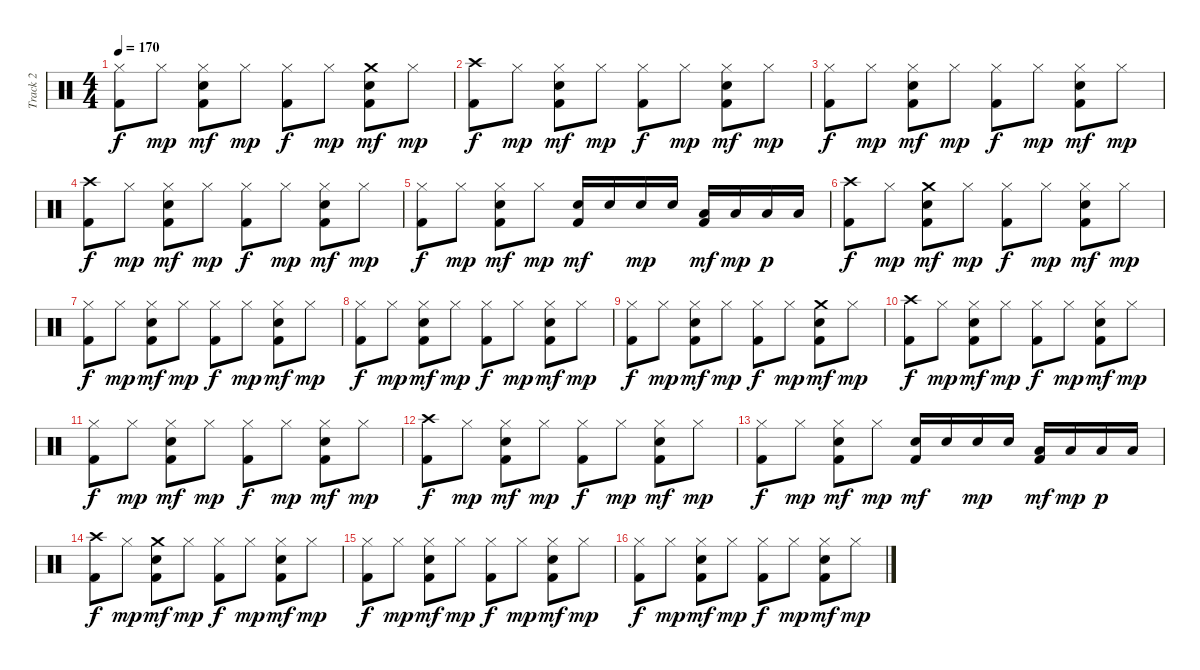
\track ("Track 2" "Track 2") {instrument percussion}
\staff {score}
\articulation defaults
\ts (4 4)
\tempo 170
\clef neutral
\ks c
("Hi-Hat (closed)" "Kick (hit) 2").8{dy f} "Hi-Hat (closed)".8{dy mp} ("Hi-Hat (closed)" "Electric Snare (hit)" "Kick (hit) 2").8{dy mf} "Hi-Hat (closed)".8{dy mp} ("Hi-Hat (closed)" "Kick (hit) 2").8{dy f} "Hi-Hat (closed)".8{dy mp} ("Crash medium (hit)" "Electric Snare (hit)" "Kick (hit) 2").8{dy mf} "Hi-Hat (closed)".8{dy mp} |
("Crash high (hit)" "Kick (hit) 2").8{dy f} "Hi-Hat (closed)".8{dy mp} ("Hi-Hat (closed)" "Electric Snare (hit)" "Kick (hit) 2").8{dy mf} "Hi-Hat (closed)".8{dy mp} ("Hi-Hat (closed)" "Kick (hit) 2").8{dy f} "Hi-Hat (closed)".8{dy mp} ("Hi-Hat (closed)" "Electric Snare (hit)" "Kick (hit) 2").8{dy mf} "Hi-Hat (closed)".8{dy mp} |
("Hi-Hat (closed)" "Kick (hit) 2").8{dy f} "Hi-Hat (closed)".8{dy mp} ("Hi-Hat (closed)" "Electric Snare (hit)" "Kick (hit) 2").8{dy mf} "Hi-Hat (closed)".8{dy mp} ("Hi-Hat (closed)" "Kick (hit) 2").8{dy f} "Hi-Hat (closed)".8{dy mp} ("Hi-Hat (closed)" "Electric Snare (hit)" "Kick (hit) 2").8{dy mf} "Hi-Hat (closed)".8{dy mp} |
("Crash high (hit)" "Kick (hit) 2").8{dy f} "Hi-Hat (closed)".8{dy mp} ("Hi-Hat (closed)" "Electric Snare (hit)" "Kick (hit) 2").8{dy mf} "Hi-Hat (closed)".8{dy mp} ("Hi-Hat (closed)" "Kick (hit) 2").8{dy f} "Hi-Hat (closed)".8{dy mp} ("Hi-Hat (closed)" "Electric Snare (hit)" "Kick (hit) 2").8{dy mf} "Hi-Hat (closed)".8{dy mp} |
("Hi-Hat (closed)" "Kick (hit) 2").8{dy f} "Hi-Hat (closed)".8{dy mp} ("Hi-Hat (closed)" "Electric Snare (hit)" "Kick (hit) 2").8{dy mf} "Hi-Hat (closed)".8{dy mp} ("Electric Snare (hit)" "Kick (hit) 2").16{dy mf} "Electric Snare (hit)".16 "Electric Snare (hit)".16{dy mp} "Electric Snare (hit)".16 ("Low Tom (hit)" "Kick (hit) 2").16{dy mf} "Low Tom (hit)".16{dy mp} "Low Tom (hit)".16{dy p} "Low Tom (hit)".16 |
("Crash high (hit)" "Kick (hit) 2").8{dy f} "Hi-Hat (closed)".8{dy mp} ("Crash medium (hit)" "Electric Snare (hit)" "Kick (hit) 2").8{dy mf} "Hi-Hat (closed)".8{dy mp} ("Hi-Hat (closed)" "Kick (hit) 2").8{dy f} "Hi-Hat (closed)".8{dy mp} ("Hi-Hat (closed)" "Electric Snare (hit)" "Kick (hit) 2").8{dy mf} "Hi-Hat (closed)".8{dy mp} |
("Hi-Hat (closed)" "Kick (hit) 2").8{dy f} "Hi-Hat (closed)".8{dy mp} ("Hi-Hat (closed)" "Electric Snare (hit)" "Kick (hit) 2").8{dy mf} "Hi-Hat (closed)".8{dy mp} ("Hi-Hat (closed)" "Kick (hit) 2").8{dy f} "Hi-Hat (closed)".8{dy mp} ("Hi-Hat (closed)" "Electric Snare (hit)" "Kick (hit) 2").8{dy mf} "Hi-Hat (closed)".8{dy mp} |
("Hi-Hat (closed)" "Kick (hit) 2").8{dy f} "Hi-Hat (closed)".8{dy mp} ("Hi-Hat (closed)" "Electric Snare (hit)" "Kick (hit) 2").8{dy mf} "Hi-Hat (closed)".8{dy mp} ("Hi-Hat (closed)" "Kick (hit) 2").8{dy f} "Hi-Hat (closed)".8{dy mp} ("Hi-Hat (closed)" "Electric Snare (hit)" "Kick (hit) 2").8{dy mf} "Hi-Hat (closed)".8{dy mp} |
("Hi-Hat (closed)" "Kick (hit) 2").8{dy f} "Hi-Hat (closed)".8{dy mp} ("Hi-Hat (closed)" "Electric Snare (hit)" "Kick (hit) 2").8{dy mf} "Hi-Hat (closed)".8{dy mp} ("Hi-Hat (closed)" "Kick (hit) 2").8{dy f} "Hi-Hat (closed)".8{dy mp} ("Crash medium (hit)" "Electric Snare (hit)" "Kick (hit) 2").8{dy mf} "Hi-Hat (closed)".8{dy mp} |
("Crash high (hit)" "Kick (hit) 2").8{dy f} "Hi-Hat (closed)".8{dy mp} ("Hi-Hat (closed)" "Electric Snare (hit)" "Kick (hit) 2").8{dy mf} "Hi-Hat (closed)".8{dy mp} ("Hi-Hat (closed)" "Kick (hit) 2").8{dy f} "Hi-Hat (closed)".8{dy mp} ("Hi-Hat (closed)" "Electric Snare (hit)" "Kick (hit) 2").8{dy mf} "Hi-Hat (closed)".8{dy mp} |
("Hi-Hat (closed)" "Kick (hit) 2").8{dy f} "Hi-Hat (closed)".8{dy mp} ("Hi-Hat (closed)" "Electric Snare (hit)" "Kick (hit) 2").8{dy mf} "Hi-Hat (closed)".8{dy mp} ("Hi-Hat (closed)" "Kick (hit) 2").8{dy f} "Hi-Hat (closed)".8{dy mp} ("Hi-Hat (closed)" "Electric Snare (hit)" "Kick (hit) 2").8{dy mf} "Hi-Hat (closed)".8{dy mp} |
("Crash high (hit)" "Kick (hit) 2").8{dy f} "Hi-Hat (closed)".8{dy mp} ("Hi-Hat (closed)" "Electric Snare (hit)" "Kick (hit) 2").8{dy mf} "Hi-Hat (closed)".8{dy mp} ("Hi-Hat (closed)" "Kick (hit) 2").8{dy f} "Hi-Hat (closed)".8{dy mp} ("Hi-Hat (closed)" "Electric Snare (hit)" "Kick (hit) 2").8{dy mf} "Hi-Hat (closed)".8{dy mp} |
("Hi-Hat (closed)" "Kick (hit) 2").8{dy f} "Hi-Hat (closed)".8{dy mp} ("Hi-Hat (closed)" "Electric Snare (hit)" "Kick (hit) 2").8{dy mf} "Hi-Hat (closed)".8{dy mp} ("Electric Snare (hit)" "Kick (hit) 2").16{dy mf} "Electric Snare (hit)".16 "Electric Snare (hit)".16{dy mp} "Electric Snare (hit)".16 ("Low Tom (hit)" "Kick (hit) 2").16{dy mf} "Low Tom (hit)".16{dy mp} "Low Tom (hit)".16{dy p} "Low Tom (hit)".16 |
("Crash high (hit)" "Kick (hit) 2").8{dy f} "Hi-Hat (closed)".8{dy mp} ("Crash medium (hit)" "Electric Snare (hit)" "Kick (hit) 2").8{dy mf} "Hi-Hat (closed)".8{dy mp} ("Hi-Hat (closed)" "Kick (hit) 2").8{dy f} "Hi-Hat (closed)".8{dy mp} ("Hi-Hat (closed)" "Electric Snare (hit)" "Kick (hit) 2").8{dy mf} "Hi-Hat (closed)".8{dy mp} |
("Hi-Hat (closed)" "Kick (hit) 2").8{dy f} "Hi-Hat (closed)".8{dy mp} ("Hi-Hat (closed)" "Electric Snare (hit)" "Kick (hit) 2").8{dy mf} "Hi-Hat (closed)".8{dy mp} ("Hi-Hat (closed)" "Kick (hit) 2").8{dy f} "Hi-Hat (closed)".8{dy mp} ("Hi-Hat (closed)" "Electric Snare (hit)" "Kick (hit) 2").8{dy mf} "Hi-Hat (closed)".8{dy mp} |
("Hi-Hat (closed)" "Kick (hit) 2").8{dy f} "Hi-Hat (closed)".8{dy mp} ("Hi-Hat (closed)" "Electric Snare (hit)" "Kick (hit) 2").8{dy mf} "Hi-Hat (closed)".8{dy mp} ("Hi-Hat (closed)" "Kick (hit) 2").8{dy f} "Hi-Hat (closed)".8{dy mp} ("Hi-Hat (closed)" "Electric Snare (hit)" "Kick (hit) 2").8{dy mf} "Hi-Hat (closed)".8{dy mp}
